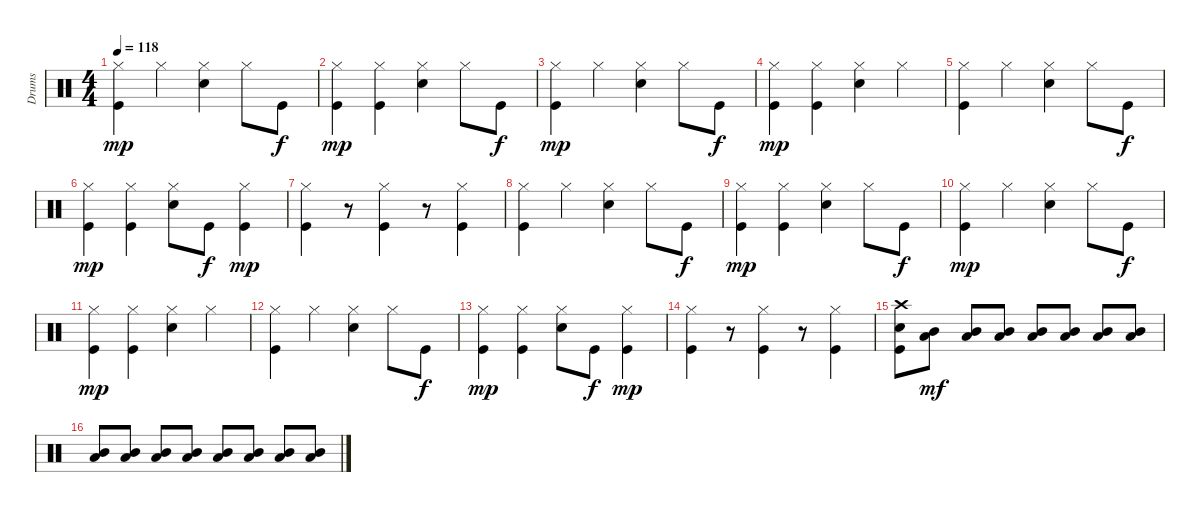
\track ("Drums" "Drums") {instrument percussion}
\staff {score}
\articulation defaults
\ts (4 4)
\tempo 118
\clef neutral
\ks c
("Kick (hit)" "Hi-Hat (closed)").4{dy mp} "Hi-Hat (closed)".4 ("Snare (hit) 2" "Hi-Hat (closed)").4 "Hi-Hat (closed)".8 "Kick (hit)".8{dy f} |
("Kick (hit)" "Hi-Hat (closed)").4{dy mp} ("Kick (hit)" "Hi-Hat (closed)").4 ("Snare (hit) 2" "Hi-Hat (closed)").4 "Hi-Hat (closed)".8 "Kick (hit)".8{dy f} |
("Kick (hit)" "Hi-Hat (closed)").4{dy mp} "Hi-Hat (closed)".4 ("Snare (hit) 2" "Hi-Hat (closed)").4 "Hi-Hat (closed)".8 "Kick (hit)".8{dy f} |
("Kick (hit)" "Hi-Hat (closed)").4{dy mp} ("Kick (hit)" "Hi-Hat (closed)").4 ("Snare (hit) 2" "Hi-Hat (closed)").4 "Hi-Hat (closed)".4 |
("Kick (hit)" "Hi-Hat (closed)").4 "Hi-Hat (closed)".4 ("Snare (hit) 2" "Hi-Hat (closed)").4 "Hi-Hat (closed)".8 "Kick (hit)".8{dy f} |
("Kick (hit)" "Hi-Hat (closed)").4{dy mp} ("Kick (hit)" "Hi-Hat (closed)").4 ("Snare (hit) 2" "Hi-Hat (closed)").8 "Kick (hit)".8{dy f} ("Kick (hit)" "Hi-Hat (closed)").4{dy mp} |
("Kick (hit)" "Hi-Hat (closed)").4 r.8 ("Kick (hit)" "Hi-Hat (closed)").4 r.8 ("Kick (hit)" "Hi-Hat (closed)").4 |
("Kick (hit)" "Hi-Hat (closed)").4 "Hi-Hat (closed)".4 ("Snare (hit) 2" "Hi-Hat (closed)").4 "Hi-Hat (closed)".8 "Kick (hit)".8{dy f} |
("Kick (hit)" "Hi-Hat (closed)").4{dy mp} ("Kick (hit)" "Hi-Hat (closed)").4 ("Snare (hit) 2" "Hi-Hat (closed)").4 "Hi-Hat (closed)".8 "Kick (hit)".8{dy f} |
("Kick (hit)" "Hi-Hat (closed)").4{dy mp} "Hi-Hat (closed)".4 ("Snare (hit) 2" "Hi-Hat (closed)").4 "Hi-Hat (closed)".8 "Kick (hit)".8{dy f} |
("Kick (hit)" "Hi-Hat (closed)").4{dy mp} ("Kick (hit)" "Hi-Hat (closed)").4 ("Snare (hit) 2" "Hi-Hat (closed)").4 "Hi-Hat (closed)".4 |
("Kick (hit)" "Hi-Hat (closed)").4 "Hi-Hat (closed)".4 ("Snare (hit) 2" "Hi-Hat (closed)").4 "Hi-Hat (closed)".8 "Kick (hit)".8{dy f} |
("Kick (hit)" "Hi-Hat (closed)").4{dy mp} ("Kick (hit)" "Hi-Hat (closed)").4 ("Snare (hit) 2" "Hi-Hat (closed)").8 "Kick (hit)".8{dy f} ("Kick (hit)" "Hi-Hat (closed)").4{dy mp} |
("Kick (hit)" "Hi-Hat (closed)").4 r.8 ("Kick (hit)" "Hi-Hat (closed)").4 r.8 ("Kick (hit)" "Hi-Hat (closed)").4 |
("Snare (hit) 2" "Kick (hit)" "Crash high (hit)").8 ("Mid Tom (hit)" "Low Tom (hit)").8{dy mf} ("Mid Tom (hit)" "Low Tom (hit)").8 ("Mid Tom (hit)" "Low Tom (hit)").8 ("Mid Tom (hit)" "Low Tom (hit)").8 ("Mid Tom (hit)" "Low Tom (hit)").8 ("Mid Tom (hit)" "Low Tom (hit)").8 ("Mid Tom (hit)" "Low Tom (hit)").8 |
("Mid Tom (hit)" "Low Tom (hit)").8 ("Mid Tom (hit)" "Low Tom (hit)").8 ("Mid Tom (hit)" "Low Tom (hit)").8 ("Mid Tom (hit)" "Low Tom (hit)").8 ("Mid Tom (hit)" "Low Tom (hit)").8 ("Mid Tom (hit)" "Low Tom (hit)").8 ("Mid Tom (hit)" "Low Tom (hit)").8 ("Mid Tom (hit)" "Low Tom (hit)").8
